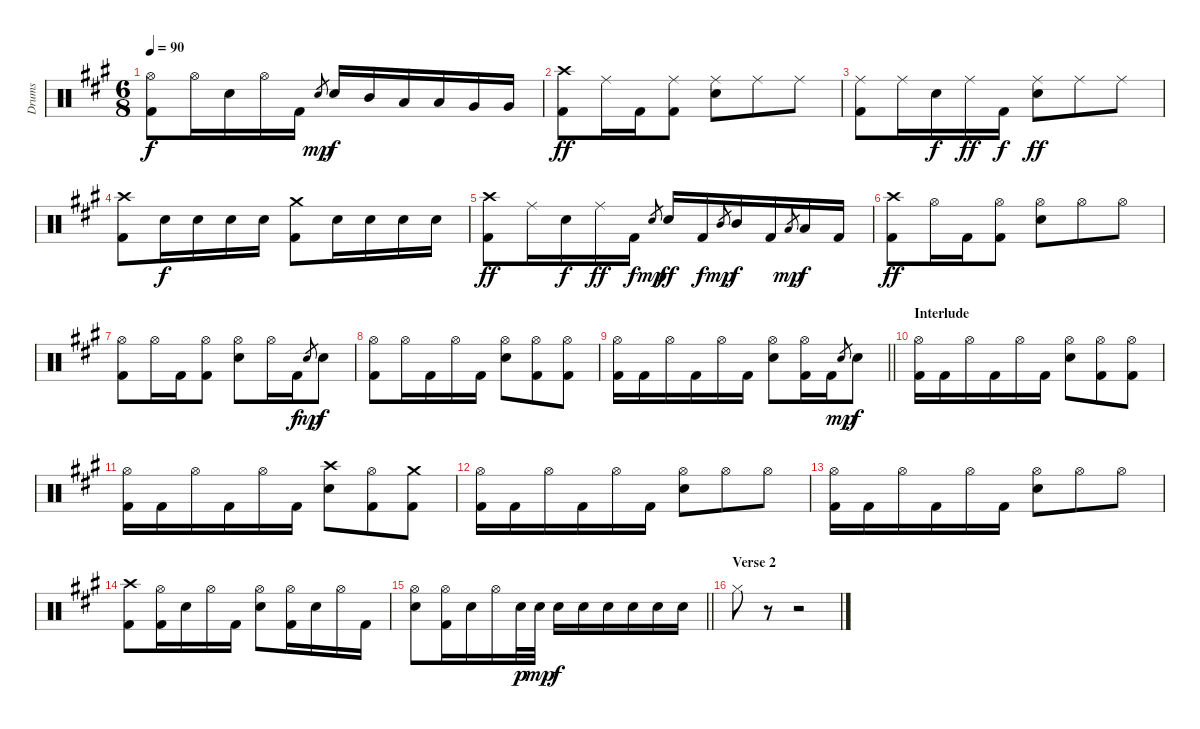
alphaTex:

\track ("Drums" "Drums") {instrument percussion}
\staff {score}
\articulation defaults
\ts (6 8)
\tempo 90
\clef neutral
\ks a
("Hi-Hat (open)" "Kick (hit) 2").8{dy f} "Hi-Hat (open)".16 "Snare (hit) 2".16 "Hi-Hat (open)".16 "Kick (hit) 2".16 "Snare (hit) 2".8{gr dy mp} "Snare (hit) 2".16{dy f} "Mid Tom (hit)".16 "Low Tom (hit)".16 "Low Tom (hit)".16 "Very Low Tom (hit)".16 "Very Low Tom (hit)".16 |
("Crash high (hit)" "Kick (hit) 2").8{dy ff} "Ride (middle)".16 "Kick (hit) 2".16 ("Ride (middle)" "Kick (hit) 2").8 ("Ride (middle)" "Snare (hit) 2").8 "Ride (middle)".8 "Ride (middle)".8 |
("Ride (middle)" "Kick (hit) 2").8 "Ride (middle)".16 "Snare (hit) 2".16{dy f} "Ride (middle)".16{dy ff} "Kick (hit) 2".16{dy f} ("Ride (middle)" "Snare (hit) 2").8{dy ff} "Ride (middle)".8 "Ride (middle)".8 |
("Crash high (hit)" "Kick (hit) 2").8 "Snare (hit) 2".16{dy f} "Snare (hit) 2".16 "Snare (hit) 2".16 "Snare (hit) 2".16 ("Crash medium (hit)" "Kick (hit) 2").8 "Snare (hit) 2".16 "Snare (hit) 2".16 "Snare (hit) 2".16 "Snare (hit) 2".16 |
("Crash high (hit)" "Kick (hit) 2").8{dy ff} "Ride (middle)".16 "Snare (hit) 2".16{dy f} "Ride (middle)".16{dy ff} "Kick (hit) 2".16{dy f} "Snare (hit) 2".8{gr dy mp} "Snare (hit) 2".16{dy ff} "Kick (hit) 2".16{dy f} "Mid Tom (hit)".8{gr dy mp} "Mid Tom (hit)".16{dy f} "Kick (hit) 2".16 "Low Tom (hit)".8{gr dy mp} "Low Tom (hit)".16{dy f} "Kick (hit) 2".16 |
("Crash high (hit)" "Kick (hit) 2").8{dy ff} "Hi-Hat (open)".16 "Kick (hit) 2".16 ("Hi-Hat (open)" "Kick (hit) 2").8 ("Hi-Hat (open)" "Snare (hit) 2").8 "Hi-Hat (open)".8 "Hi-Hat (open)".8 |
("Hi-Hat (open)" "Kick (hit) 2").8 "Hi-Hat (open)".16 "Kick (hit) 2".16 ("Hi-Hat (open)" "Kick (hit) 2").8 ("Hi-Hat (open)" "Snare (hit) 2").8 "Hi-Hat (open)".16 "Kick (hit) 2".16{dy f} "Snare (hit) 2".8{gr dy mp} "Snare (hit) 2".8{dy f} |
("Hi-Hat (open)" "Kick (hit) 2").8 "Hi-Hat (open)".16 "Kick (hit) 2".16 "Hi-Hat (open)".16 "Kick (hit) 2".16 ("Hi-Hat (open)" "Snare (hit) 2").8 ("Hi-Hat (open)" "Kick (hit) 2").8 ("Hi-Hat (open)" "Kick (hit) 2").8 |
\barLineRight lightlight
("Hi-Hat (open)" "Kick (hit) 2").16 "Kick (hit) 2".16 "Hi-Hat (open)".16 "Kick (hit) 2".16 "Hi-Hat (open)".16 "Kick (hit) 2".16 ("Hi-Hat (open)" "Snare (hit) 2").8 ("Hi-Hat (open)" "Kick (hit) 2").16 "Kick (hit) 2".16 "Snare (hit) 2".8{gr dy mp} "Snare (hit) 2".8{dy f} |
\section ("" "Interlude")
("Hi-Hat (open)" "Kick (hit) 2").16 "Kick (hit) 2".16 "Hi-Hat (open)".16 "Kick (hit) 2".16 "Hi-Hat (open)".16 "Kick (hit) 2".16 ("Hi-Hat (open)" "Snare (hit) 2").8 ("Hi-Hat (open)" "Kick (hit) 2").8 ("Hi-Hat (open)" "Kick (hit) 2").8 |
("Hi-Hat (open)" "Kick (hit) 2").16 "Kick (hit) 2".16 "Hi-Hat (open)".16 "Kick (hit) 2".16 "Hi-Hat (open)".16 "Kick (hit) 2".16 ("Crash high (hit)" "Snare (hit) 2").8 ("Hi-Hat (open)" "Kick (hit) 2").8 ("Crash medium (hit)" "Kick (hit) 2").8 |
("Hi-Hat (open)" "Kick (hit) 2").16 "Kick (hit) 2".16 "Hi-Hat (open)".16 "Kick (hit) 2".16 "Hi-Hat (open)".16 "Kick (hit) 2".16 ("Hi-Hat (open)" "Snare (hit) 2").8 "Hi-Hat (open)".8 "Hi-Hat (open)".8 |
("Hi-Hat (open)" "Kick (hit) 2").16 "Kick (hit) 2".16 "Hi-Hat (open)".16 "Kick (hit) 2".16 "Hi-Hat (open)".16 "Kick (hit) 2".16 ("Hi-Hat (open)" "Snare (hit) 2").8 "Hi-Hat (open)".8 "Hi-Hat (open)".8 |
("Crash high (hit)" "Kick (hit) 2").8 ("Hi-Hat (open)" "Kick (hit) 2").16 "Snare (hit) 2".16 "Hi-Hat (open)".16 "Kick (hit) 2".16 ("Hi-Hat (open)" "Snare (hit) 2").8 ("Hi-Hat (open)" "Kick (hit) 2").16 "Snare (hit) 2".16 "Hi-Hat (open)".16 "Kick (hit) 2".16 |
\barLineRight lightlight
("Hi-Hat (open)" "Snare (hit) 2").8 ("Hi-Hat (open)" "Kick (hit) 2").16 "Snare (hit) 2".16 "Hi-Hat (open)".16 "Snare (hit) 2".32{dy p} "Snare (hit) 2".32{dy mp} "Snare (hit) 2".16{dy f} "Snare (hit) 2".16 "Snare (hit) 2".16 "Snare (hit) 2".16 "Snare (hit) 2".16 "Snare (hit) 2".16 |
\section ("" "Verse 2")
"Hi-Hat (closed)".8 r.8 r.2
